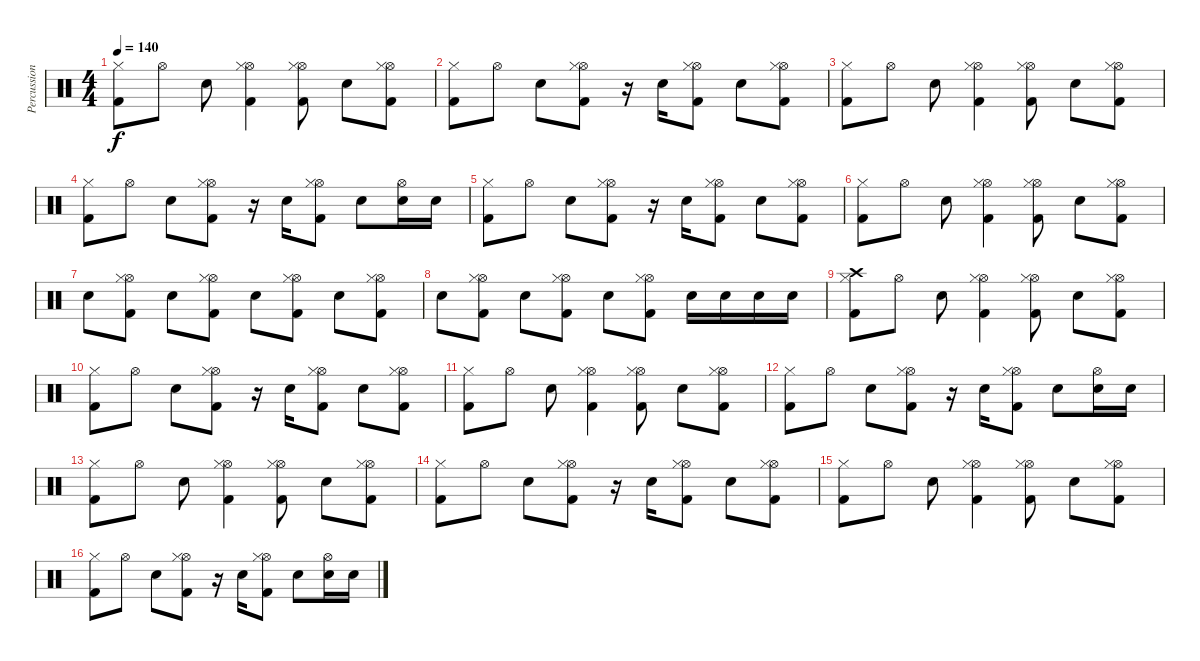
\track ("Percussion" "Percussion") {instrument percussion}
\staff {score}
\articulation defaults
\ts (4 4)
\tempo 140
\clef neutral
\ks c
("Kick (hit) 2" "Hi-Hat (closed)").8{dy f} "Hi-Hat (open)".8 "Snare (hit) 2".8 ("Kick (hit) 2" "Hi-Hat (open)" "Hi-Hat (closed)").4 ("Kick (hit) 2" "Hi-Hat (open)" "Hi-Hat (closed)").8 "Snare (hit) 2".8 ("Kick (hit) 2" "Hi-Hat (open)" "Hi-Hat (closed)").8 |
("Kick (hit) 2" "Hi-Hat (closed)").8 "Hi-Hat (open)".8 "Snare (hit) 2".8 ("Kick (hit) 2" "Hi-Hat (open)" "Hi-Hat (closed)").8 r.16 "Snare (hit) 2".16 ("Kick (hit) 2" "Hi-Hat (open)" "Hi-Hat (closed)").8 "Snare (hit) 2".8 ("Kick (hit) 2" "Hi-Hat (open)" "Hi-Hat (closed)").8 |
("Kick (hit) 2" "Hi-Hat (closed)").8 "Hi-Hat (open)".8 "Snare (hit) 2".8 ("Kick (hit) 2" "Hi-Hat (open)" "Hi-Hat (closed)").4 ("Kick (hit) 2" "Hi-Hat (open)" "Hi-Hat (closed)").8 "Snare (hit) 2".8 ("Kick (hit) 2" "Hi-Hat (open)" "Hi-Hat (closed)").8 |
("Kick (hit) 2" "Hi-Hat (closed)").8 "Hi-Hat (open)".8 "Snare (hit) 2".8 ("Kick (hit) 2" "Hi-Hat (open)" "Hi-Hat (closed)").8 r.16 "Snare (hit) 2".16 ("Kick (hit) 2" "Hi-Hat (open)" "Hi-Hat (closed)").8 "Snare (hit) 2".8 ("Snare (hit) 2" "Hi-Hat (open)").16 "Snare (hit) 2".16 |
("Kick (hit) 2" "Hi-Hat (closed)").8 "Hi-Hat (open)".8 "Snare (hit) 2".8 ("Kick (hit) 2" "Hi-Hat (open)" "Hi-Hat (closed)").8 r.16 "Snare (hit) 2".16 ("Kick (hit) 2" "Hi-Hat (open)" "Hi-Hat (closed)").8 "Snare (hit) 2".8 ("Kick (hit) 2" "Hi-Hat (open)" "Hi-Hat (closed)").8 |
("Kick (hit) 2" "Hi-Hat (closed)").8 "Hi-Hat (open)".8 "Snare (hit) 2".8 ("Kick (hit) 2" "Hi-Hat (open)" "Hi-Hat (closed)").4 ("Kick (hit) 2" "Hi-Hat (open)" "Hi-Hat (closed)").8 "Snare (hit) 2".8 ("Kick (hit) 2" "Hi-Hat (open)" "Hi-Hat (closed)").8 |
"Snare (hit) 2".8 ("Kick (hit) 2" "Hi-Hat (open)" "Hi-Hat (closed)").8 "Snare (hit) 2".8 ("Kick (hit) 2" "Hi-Hat (open)" "Hi-Hat (closed)").8 "Snare (hit) 2".8 ("Kick (hit) 2" "Hi-Hat (open)" "Hi-Hat (closed)").8 "Snare (hit) 2".8 ("Kick (hit) 2" "Hi-Hat (open)" "Hi-Hat (closed)").8 |
"Snare (hit) 2".8 ("Kick (hit) 2" "Hi-Hat (open)" "Hi-Hat (closed)").8 "Snare (hit) 2".8 ("Kick (hit) 2" "Hi-Hat (open)" "Hi-Hat (closed)").8 "Snare (hit) 2".8 ("Kick (hit) 2" "Hi-Hat (open)" "Hi-Hat (closed)").8 "Snare (hit) 2".16 "Snare (hit) 2".16 "Snare (hit) 2".16 "Snare (hit) 2".16 |
("Kick (hit) 2" "Crash high (hit)" "Hi-Hat (closed)").8 "Hi-Hat (open)".8 "Snare (hit) 2".8 ("Kick (hit) 2" "Hi-Hat (open)" "Hi-Hat (closed)").4 ("Kick (hit) 2" "Hi-Hat (open)" "Hi-Hat (closed)").8 "Snare (hit) 2".8 ("Kick (hit) 2" "Hi-Hat (open)" "Hi-Hat (closed)").8 |
("Kick (hit) 2" "Hi-Hat (closed)").8 "Hi-Hat (open)".8 "Snare (hit) 2".8 ("Kick (hit) 2" "Hi-Hat (open)" "Hi-Hat (closed)").8 r.16 "Snare (hit) 2".16 ("Kick (hit) 2" "Hi-Hat (open)" "Hi-Hat (closed)").8 "Snare (hit) 2".8 ("Kick (hit) 2" "Hi-Hat (open)" "Hi-Hat (closed)").8 |
("Kick (hit) 2" "Hi-Hat (closed)").8 "Hi-Hat (open)".8 "Snare (hit) 2".8 ("Kick (hit) 2" "Hi-Hat (open)" "Hi-Hat (closed)").4 ("Kick (hit) 2" "Hi-Hat (open)" "Hi-Hat (closed)").8 "Snare (hit) 2".8 ("Kick (hit) 2" "Hi-Hat (open)" "Hi-Hat (closed)").8 |
("Kick (hit) 2" "Hi-Hat (closed)").8 "Hi-Hat (open)".8 "Snare (hit) 2".8 ("Kick (hit) 2" "Hi-Hat (open)" "Hi-Hat (closed)").8 r.16 "Snare (hit) 2".16 ("Kick (hit) 2" "Hi-Hat (open)" "Hi-Hat (closed)").8 "Snare (hit) 2".8 ("Snare (hit) 2" "Hi-Hat (open)").16 "Snare (hit) 2".16 |
("Kick (hit) 2" "Hi-Hat (closed)").8 "Hi-Hat (open)".8 "Snare (hit) 2".8 ("Kick (hit) 2" "Hi-Hat (open)" "Hi-Hat (closed)").4 ("Kick (hit) 2" "Hi-Hat (open)" "Hi-Hat (closed)").8 "Snare (hit) 2".8 ("Kick (hit) 2" "Hi-Hat (open)" "Hi-Hat (closed)").8 |
("Kick (hit) 2" "Hi-Hat (closed)").8 "Hi-Hat (open)".8 "Snare (hit) 2".8 ("Kick (hit) 2" "Hi-Hat (open)" "Hi-Hat (closed)").8 r.16 "Snare (hit) 2".16 ("Kick (hit) 2" "Hi-Hat (open)" "Hi-Hat (closed)").8 "Snare (hit) 2".8 ("Kick (hit) 2" "Hi-Hat (open)" "Hi-Hat (closed)").8 |
("Kick (hit) 2" "Hi-Hat (closed)").8 "Hi-Hat (open)".8 "Snare (hit) 2".8 ("Kick (hit) 2" "Hi-Hat (open)" "Hi-Hat (closed)").4 ("Kick (hit) 2" "Hi-Hat (open)" "Hi-Hat (closed)").8 "Snare (hit) 2".8 ("Kick (hit) 2" "Hi-Hat (open)" "Hi-Hat (closed)").8 |
("Kick (hit) 2" "Hi-Hat (closed)").8 "Hi-Hat (open)".8 "Snare (hit) 2".8 ("Kick (hit) 2" "Hi-Hat (open)" "Hi-Hat (closed)").8 r.16 "Snare (hit) 2".16 ("Kick (hit) 2" "Hi-Hat (open)" "Hi-Hat (closed)").8 "Snare (hit) 2".8 ("Snare (hit) 2" "Hi-Hat (open)").16 "Snare (hit) 2".16
